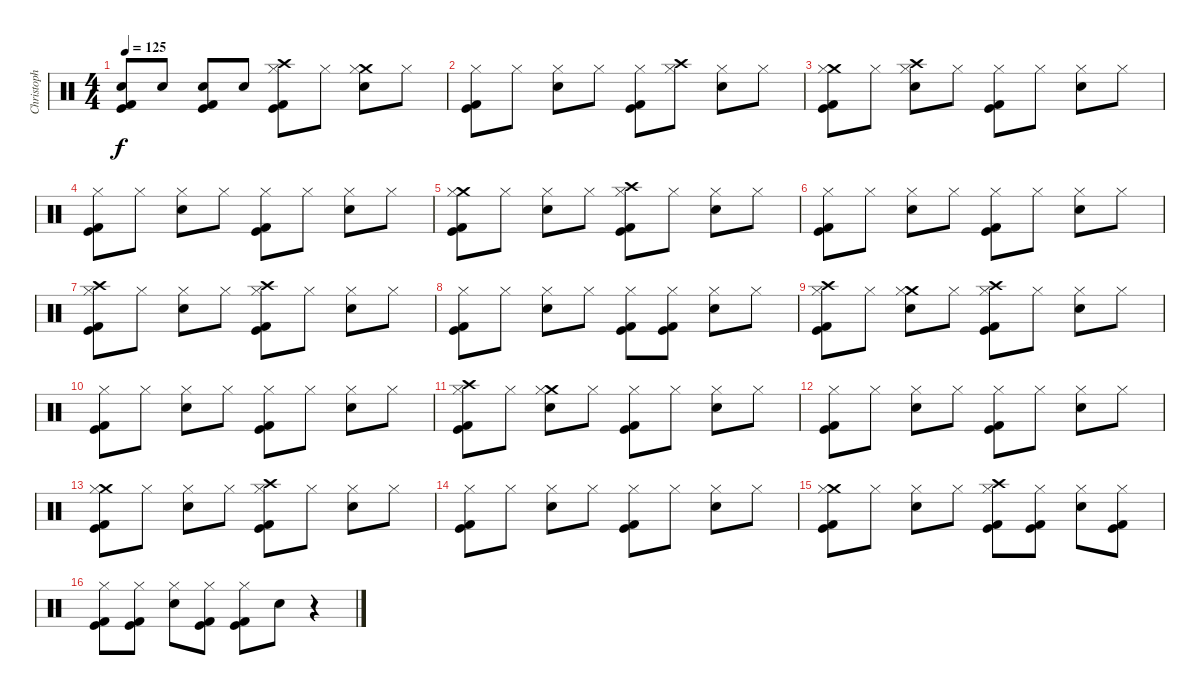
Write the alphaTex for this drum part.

\track ("Christoph (Drums)" "Christoph ") {instrument percussion}
\staff {score}
\articulation defaults
\ts (4 4)
\tempo 125
\clef neutral
\ks c
("Snare (hit) 2" "Kick (hit) 2" "Kick (hit)").8{dy f} "Snare (hit) 2".8 ("Snare (hit) 2" "Kick (hit) 2" "Kick (hit)").8 "Snare (hit) 2".8 ("Crash high (hit)" "Hi-Hat (closed)" "Kick (hit) 2" "Kick (hit)").8 "Hi-Hat (closed)".8 ("Crash medium (hit)" "Hi-Hat (closed)" "Snare (hit) 2").8 "Hi-Hat (closed)".8 |
("Hi-Hat (closed)" "Kick (hit) 2" "Kick (hit)").8 "Hi-Hat (closed)".8 ("Hi-Hat (closed)" "Snare (hit) 2").8 "Hi-Hat (closed)".8 ("Hi-Hat (closed)" "Kick (hit) 2" "Kick (hit)").8 ("Crash high (hit)" "Hi-Hat (closed)").8 ("Hi-Hat (closed)" "Snare (hit) 2").8 "Hi-Hat (closed)".8 |
("Crash medium (hit)" "Hi-Hat (closed)" "Kick (hit) 2" "Kick (hit)").8 "Hi-Hat (closed)".8 ("Crash high (hit)" "Hi-Hat (closed)" "Snare (hit) 2").8 "Hi-Hat (closed)".8 ("Hi-Hat (closed)" "Kick (hit) 2" "Kick (hit)").8 "Hi-Hat (closed)".8 ("Hi-Hat (closed)" "Snare (hit) 2").8 "Hi-Hat (closed)".8 |
("Hi-Hat (closed)" "Kick (hit) 2" "Kick (hit)").8 "Hi-Hat (closed)".8 ("Hi-Hat (closed)" "Snare (hit) 2").8 "Hi-Hat (closed)".8 ("Hi-Hat (closed)" "Kick (hit) 2" "Kick (hit)").8 "Hi-Hat (closed)".8 ("Hi-Hat (closed)" "Snare (hit) 2").8 "Hi-Hat (closed)".8 |
("Crash medium (hit)" "Hi-Hat (closed)" "Kick (hit) 2" "Kick (hit)").8 "Hi-Hat (closed)".8 ("Hi-Hat (closed)" "Snare (hit) 2").8 "Hi-Hat (closed)".8 ("Crash high (hit)" "Hi-Hat (closed)" "Kick (hit) 2" "Kick (hit)").8 "Hi-Hat (closed)".8 ("Hi-Hat (closed)" "Snare (hit) 2").8 "Hi-Hat (closed)".8 |
("Hi-Hat (closed)" "Kick (hit) 2" "Kick (hit)").8 "Hi-Hat (closed)".8 ("Hi-Hat (closed)" "Snare (hit) 2").8 "Hi-Hat (closed)".8 ("Hi-Hat (closed)" "Kick (hit) 2" "Kick (hit)").8 "Hi-Hat (closed)".8 ("Hi-Hat (closed)" "Snare (hit) 2").8 "Hi-Hat (closed)".8 |
("Crash high (hit)" "Hi-Hat (closed)" "Kick (hit) 2" "Kick (hit)").8 "Hi-Hat (closed)".8 ("Hi-Hat (closed)" "Snare (hit) 2").8 "Hi-Hat (closed)".8 ("Crash high (hit)" "Hi-Hat (closed)" "Kick (hit) 2" "Kick (hit)").8 "Hi-Hat (closed)".8 ("Hi-Hat (closed)" "Snare (hit) 2").8 "Hi-Hat (closed)".8 |
("Hi-Hat (closed)" "Kick (hit) 2" "Kick (hit)").8 "Hi-Hat (closed)".8 ("Hi-Hat (closed)" "Snare (hit) 2").8 "Hi-Hat (closed)".8 ("Hi-Hat (closed)" "Kick (hit) 2" "Kick (hit)").8 ("Hi-Hat (closed)" "Kick (hit) 2" "Kick (hit)").8 ("Hi-Hat (closed)" "Snare (hit) 2").8 "Hi-Hat (closed)".8 |
("Crash high (hit)" "Hi-Hat (closed)" "Kick (hit) 2" "Kick (hit)").8 "Hi-Hat (closed)".8 ("Crash medium (hit)" "Hi-Hat (closed)" "Snare (hit) 2").8 "Hi-Hat (closed)".8 ("Crash high (hit)" "Hi-Hat (closed)" "Kick (hit) 2" "Kick (hit)").8 "Hi-Hat (closed)".8 ("Hi-Hat (closed)" "Snare (hit) 2").8 "Hi-Hat (closed)".8 |
("Hi-Hat (closed)" "Kick (hit) 2" "Kick (hit)").8 "Hi-Hat (closed)".8 ("Hi-Hat (closed)" "Snare (hit) 2").8 "Hi-Hat (closed)".8 ("Hi-Hat (closed)" "Kick (hit) 2" "Kick (hit)").8 "Hi-Hat (closed)".8 ("Hi-Hat (closed)" "Snare (hit) 2").8 "Hi-Hat (closed)".8 |
("Crash high (hit)" "Hi-Hat (closed)" "Kick (hit) 2" "Kick (hit)").8 "Hi-Hat (closed)".8 ("Crash medium (hit)" "Hi-Hat (closed)" "Snare (hit) 2").8 "Hi-Hat (closed)".8 ("Hi-Hat (closed)" "Kick (hit) 2" "Kick (hit)").8 "Hi-Hat (closed)".8 ("Hi-Hat (closed)" "Snare (hit) 2").8 "Hi-Hat (closed)".8 |
("Hi-Hat (closed)" "Kick (hit) 2" "Kick (hit)").8 "Hi-Hat (closed)".8 ("Hi-Hat (closed)" "Snare (hit) 2").8 "Hi-Hat (closed)".8 ("Hi-Hat (closed)" "Kick (hit) 2" "Kick (hit)").8 "Hi-Hat (closed)".8 ("Hi-Hat (closed)" "Snare (hit) 2").8 "Hi-Hat (closed)".8 |
("Crash medium (hit)" "Hi-Hat (closed)" "Kick (hit) 2" "Kick (hit)").8 "Hi-Hat (closed)".8 ("Hi-Hat (closed)" "Snare (hit) 2").8 "Hi-Hat (closed)".8 ("Crash high (hit)" "Hi-Hat (closed)" "Kick (hit) 2" "Kick (hit)").8 "Hi-Hat (closed)".8 ("Hi-Hat (closed)" "Snare (hit) 2").8 "Hi-Hat (closed)".8 |
("Hi-Hat (closed)" "Kick (hit) 2" "Kick (hit)").8 "Hi-Hat (closed)".8 ("Hi-Hat (closed)" "Snare (hit) 2").8 "Hi-Hat (closed)".8 ("Hi-Hat (closed)" "Kick (hit) 2" "Kick (hit)").8 "Hi-Hat (closed)".8 ("Hi-Hat (closed)" "Snare (hit) 2").8 "Hi-Hat (closed)".8 |
("Crash medium (hit)" "Hi-Hat (closed)" "Kick (hit) 2" "Kick (hit)").8 "Hi-Hat (closed)".8 ("Hi-Hat (closed)" "Snare (hit) 2").8 "Hi-Hat (closed)".8 ("Crash high (hit)" "Hi-Hat (closed)" "Kick (hit) 2" "Kick (hit)").8 ("Hi-Hat (closed)" "Kick (hit) 2" "Kick (hit)").8 ("Hi-Hat (closed)" "Snare (hit) 2").8 ("Hi-Hat (closed)" "Kick (hit) 2" "Kick (hit)").8 |
("Hi-Hat (closed)" "Kick (hit) 2" "Kick (hit)").8 ("Hi-Hat (closed)" "Kick (hit) 2" "Kick (hit)").8 ("Hi-Hat (closed)" "Snare (hit) 2").8 ("Hi-Hat (closed)" "Kick (hit) 2" "Kick (hit)").8 ("Hi-Hat (closed)" "Kick (hit) 2" "Kick (hit)").8 "Snare (hit) 2".8 r.4
